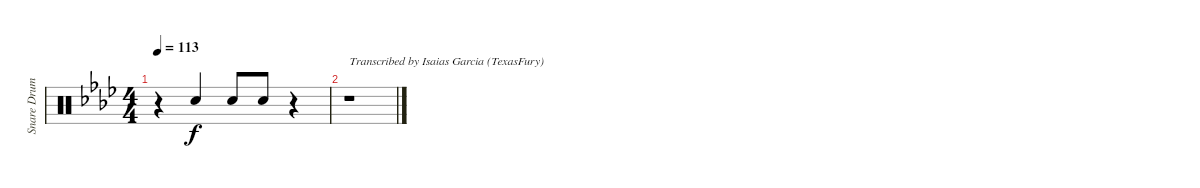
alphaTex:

\track ("Snare Drum - reverb" "Snare Drum") {instrument percussion}
\staff {score}
\articulation defaults
\ts (4 4)
\tempo 113
\clef neutral
\ks fminor
r.4{dy f} "Snare (hit) 2".4{beam Up} "Snare (hit) 2".8{beam Up} "Snare (hit) 2".8{beam Up} r.4{volume 0} |
r.1{txt "Transcribed by Isaias Garcia (TexasFury)"}
